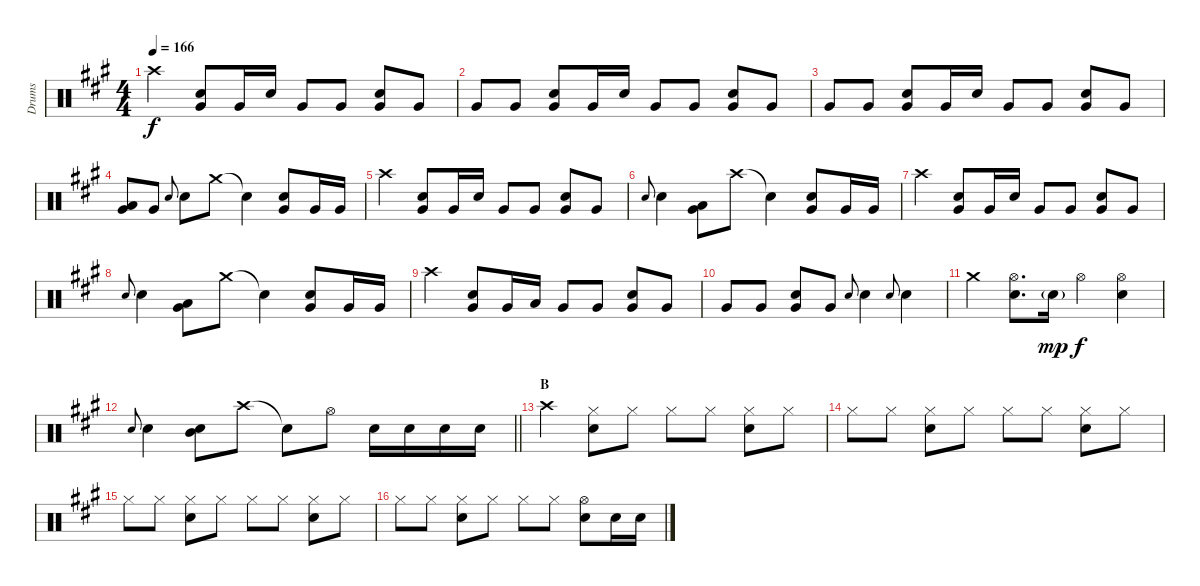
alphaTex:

\track ("Drums" "Drums") {instrument percussion}
\staff {score}
\articulation defaults
\ts (4 4)
\tempo 166
\clef neutral
\ks a "Crash high (hit)".4{dy f}
("Very Low Tom (hit)" "Snare (hit) 2").8 "Very Low Tom (hit)".16 "Snare (hit) 2".16 "Very Low Tom (hit)".8 "Very Low Tom (hit)".8 ("Very Low Tom (hit)" "Snare (hit) 2").8 "Very Low Tom (hit)".8 |
"Very Low Tom (hit)".8 "Very Low Tom (hit)".8 ("Very Low Tom (hit)" "Snare (hit) 2").8 "Very Low Tom (hit)".16 "Snare (hit) 2".16 "Very Low Tom (hit)".8 "Very Low Tom (hit)".8 ("Very Low Tom (hit)" "Snare (hit) 2").8 "Very Low Tom (hit)".8 |
"Very Low Tom (hit)".8 "Very Low Tom (hit)".8 ("Very Low Tom (hit)" "Snare (hit) 2").8 "Very Low Tom (hit)".16 "Snare (hit) 2".16 "Very Low Tom (hit)".8 "Very Low Tom (hit)".8 ("Very Low Tom (hit)" "Snare (hit) 2").8 "Very Low Tom (hit)".8 |
("Very Low Tom (hit)" "Low Tom (hit)").8 "Very Low Tom (hit)".8 "Snare (hit) 2".8{gr onbeat} "Snare (hit) 2".8 "Crash medium (hit)".8 "Snare (hit)"{t}.4 ("Snare (hit) 2" "Very Low Tom (hit)").8 "Very Low Tom (hit)".16 "Very Low Tom (hit)".16 |
"Crash high (hit)".4 ("Snare (hit) 2" "Very Low Tom (hit)").8 "Very Low Tom (hit)".16 "Snare (hit) 2".16 "Very Low Tom (hit)".8 "Very Low Tom (hit)".8 ("Very Low Tom (hit)" "Snare (hit) 2").8 "Very Low Tom (hit)".8 |
"Snare (hit) 2".8{gr onbeat} "Snare (hit) 2".4 ("Very Low Tom (hit)" "Low Tom (hit)").8 "Crash high (hit)".8 "Snare (hit)"{t}.4 ("Snare (hit) 2" "Very Low Tom (hit)").8 "Very Low Tom (hit)".16 "Very Low Tom (hit)".16 |
"Crash high (hit)".4 ("Snare (hit) 2" "Very Low Tom (hit)").8 "Very Low Tom (hit)".16 "Snare (hit) 2".16 "Very Low Tom (hit)".8 "Very Low Tom (hit)".8 ("Very Low Tom (hit)" "Snare (hit) 2").8 "Very Low Tom (hit)".8 |
"Snare (hit) 2".8{gr onbeat} "Snare (hit) 2".4 ("Very Low Tom (hit)" "Low Tom (hit)").8 "Crash medium (hit)".8 "Snare (hit)"{t}.4 ("Snare (hit) 2" "Very Low Tom (hit)").8 "Very Low Tom (hit)".16 "Very Low Tom (hit)".16 |
"Crash high (hit)".4 ("Snare (hit) 2" "Very Low Tom (hit)").8 "Very Low Tom (hit)".16 "Low Tom (hit)".16 "Very Low Tom (hit)".8 "Very Low Tom (hit)".8 ("Very Low Tom (hit)" "Snare (hit) 2").8 "Very Low Tom (hit)".8 |
"Very Low Tom (hit)".8 "Very Low Tom (hit)".8 ("Very Low Tom (hit)" "Snare (hit) 2").8 "Very Low Tom (hit)".8 "Snare (hit) 2".8{gr onbeat} "Snare (hit) 2".4 "Snare (hit) 2".8{gr onbeat} "Snare (hit) 2".4 |
"Crash medium (hit)".4 ("Hi-Hat (open)" "Snare (hit) 2").8{d} "Snare (hit) 2"{g}.16{dy mp} "Hi-Hat (open)".4{dy f} ("Hi-Hat (open)" "Snare (hit) 2").4 |
\barLineRight lightlight "Snare (hit) 2".8{gr onbeat} "Snare (hit) 2".4
("Snare (hit) 2" "Mid Tom (hit)").8 "Crash high (hit)".8 "Snare (hit)"{t}.8 "Hi-Hat (open)".8 "Snare (hit) 2".16 "Snare (hit) 2".16 "Snare (hit) 2".16 "Snare (hit) 2".16 |
\section ("" "B")
"Crash high (hit)".4 ("Hi-Hat (closed)" "Snare (hit) 2").8 "Hi-Hat (closed)".8 "Hi-Hat (closed)".8 "Hi-Hat (closed)".8 ("Hi-Hat (closed)" "Snare (hit) 2").8 "Hi-Hat (closed)".8 |
"Hi-Hat (closed)".8 "Hi-Hat (closed)".8 ("Hi-Hat (closed)" "Snare (hit) 2").8 "Hi-Hat (closed)".8 "Hi-Hat (closed)".8 "Hi-Hat (closed)".8 ("Hi-Hat (closed)" "Snare (hit) 2").8 "Hi-Hat (closed)".8 |
"Hi-Hat (closed)".8 "Hi-Hat (closed)".8 ("Hi-Hat (closed)" "Snare (hit) 2").8 "Hi-Hat (closed)".8 "Hi-Hat (closed)".8 "Hi-Hat (closed)".8 ("Hi-Hat (closed)" "Snare (hit) 2").8 "Hi-Hat (closed)".8 |
"Hi-Hat (closed)".8 "Hi-Hat (closed)".8 ("Hi-Hat (closed)" "Snare (hit) 2").8 "Hi-Hat (closed)".8 "Hi-Hat (closed)".8 "Hi-Hat (closed)".8 ("Hi-Hat (open)" "Snare (hit) 2").8 "Snare (hit) 2".16 "Snare (hit) 2".16
